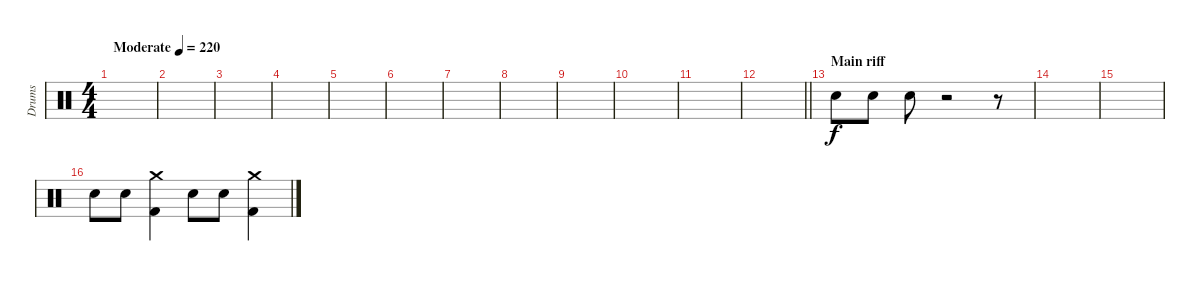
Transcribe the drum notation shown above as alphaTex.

\track ("Drums" "Drums") {instrument percussion}
\staff {score}
\articulation defaults
\ts (4 4)
\tempo (220 "Moderate")
\clef neutral
\ks c
|
|
|
|
|
|
|
|
|
|
|
\barLineRight lightlight
|
\section ("" "Main riff")
"Electric Snare (hit)".8 "Electric Snare (hit)".8 "Electric Snare (hit)".8 r.2 r.8 |
|
|
"Electric Snare (hit)".8 "Electric Snare (hit)".8 ("Crash medium (hit)" "Kick (hit) 2").4 "Electric Snare (hit)".8 "Electric Snare (hit)".8 ("Crash medium (hit)" "Kick (hit) 2").4
